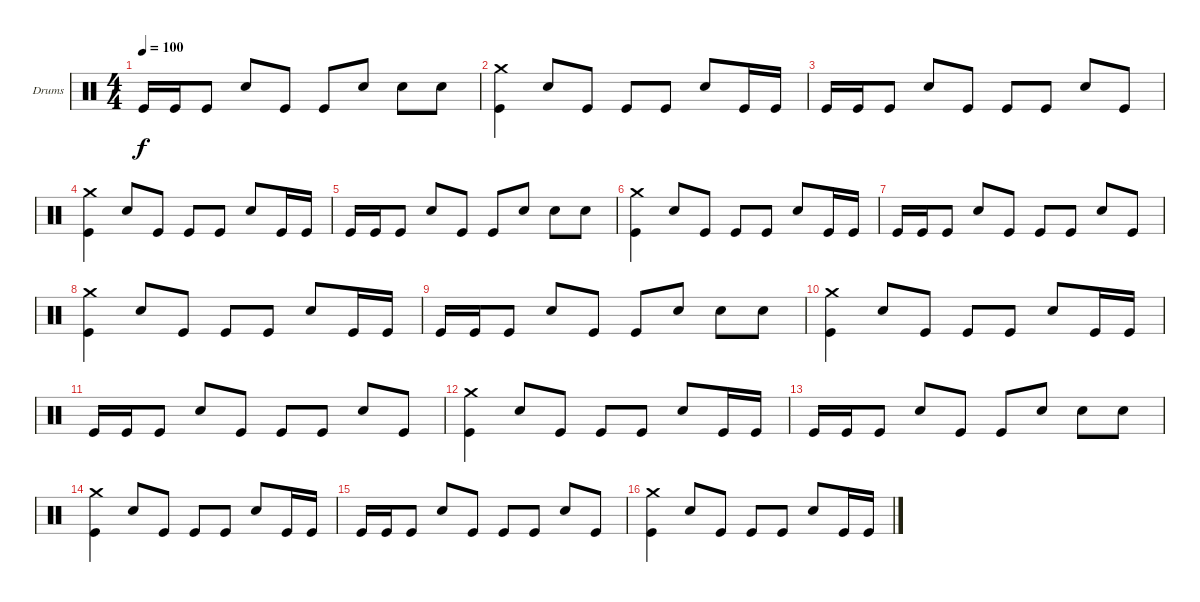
\bracketExtendMode groupsimilarinstruments
\firstSystemTrackNameOrientation horizontal
\otherSystemsTrackNameOrientation horizontal
\track ("Drumkit" "Drums") {instrument percussion}
\staff {score}
\articulation defaults
\ts (4 4)
\tempo 100
\clef neutral
\ks c "Kick (hit)".16{dy f} "Kick (hit)".16 "Kick (hit)".8 "Snare (hit) 2".8 "Kick (hit)".8 "Kick (hit)".8 "Snare (hit) 2".8 "Snare (hit) 2".8 "Snare (hit) 2".8
|
("Crash medium (hit)" "Kick (hit)").4 "Snare (hit) 2".8 "Kick (hit)".8 "Kick (hit)".8 "Kick (hit)".8 "Snare (hit) 2".8 "Kick (hit)".16 "Kick (hit)".16 |
"Kick (hit)".16 "Kick (hit)".16 "Kick (hit)".8 "Snare (hit) 2".8 "Kick (hit)".8 "Kick (hit)".8 "Kick (hit)".8 "Snare (hit) 2".8 "Kick (hit)".8 |
("Crash medium (hit)" "Kick (hit)").4 "Snare (hit) 2".8 "Kick (hit)".8 "Kick (hit)".8 "Kick (hit)".8 "Snare (hit) 2".8 "Kick (hit)".16 "Kick (hit)".16 |
"Kick (hit)".16 "Kick (hit)".16 "Kick (hit)".8 "Snare (hit) 2".8 "Kick (hit)".8 "Kick (hit)".8 "Snare (hit) 2".8 "Snare (hit) 2".8 "Snare (hit) 2".8 |
("Crash medium (hit)" "Kick (hit)").4 "Snare (hit) 2".8 "Kick (hit)".8 "Kick (hit)".8 "Kick (hit)".8 "Snare (hit) 2".8 "Kick (hit)".16 "Kick (hit)".16 |
"Kick (hit)".16 "Kick (hit)".16 "Kick (hit)".8 "Snare (hit) 2".8 "Kick (hit)".8 "Kick (hit)".8 "Kick (hit)".8 "Snare (hit) 2".8 "Kick (hit)".8 |
("Crash medium (hit)" "Kick (hit)").4 "Snare (hit) 2".8 "Kick (hit)".8 "Kick (hit)".8 "Kick (hit)".8 "Snare (hit) 2".8 "Kick (hit)".16 "Kick (hit)".16 |
"Kick (hit)".16 "Kick (hit)".16 "Kick (hit)".8 "Snare (hit) 2".8 "Kick (hit)".8 "Kick (hit)".8 "Snare (hit) 2".8 "Snare (hit) 2".8 "Snare (hit) 2".8 |
("Crash medium (hit)" "Kick (hit)").4 "Snare (hit) 2".8 "Kick (hit)".8 "Kick (hit)".8 "Kick (hit)".8 "Snare (hit) 2".8 "Kick (hit)".16 "Kick (hit)".16 |
"Kick (hit)".16 "Kick (hit)".16 "Kick (hit)".8 "Snare (hit) 2".8 "Kick (hit)".8 "Kick (hit)".8 "Kick (hit)".8 "Snare (hit) 2".8 "Kick (hit)".8 |
("Crash medium (hit)" "Kick (hit)").4 "Snare (hit) 2".8 "Kick (hit)".8 "Kick (hit)".8 "Kick (hit)".8 "Snare (hit) 2".8 "Kick (hit)".16 "Kick (hit)".16 |
"Kick (hit)".16 "Kick (hit)".16 "Kick (hit)".8 "Snare (hit) 2".8 "Kick (hit)".8 "Kick (hit)".8 "Snare (hit) 2".8 "Snare (hit) 2".8 "Snare (hit) 2".8 |
("Crash medium (hit)" "Kick (hit)").4 "Snare (hit) 2".8 "Kick (hit)".8 "Kick (hit)".8 "Kick (hit)".8 "Snare (hit) 2".8 "Kick (hit)".16 "Kick (hit)".16 |
"Kick (hit)".16 "Kick (hit)".16 "Kick (hit)".8 "Snare (hit) 2".8 "Kick (hit)".8 "Kick (hit)".8 "Kick (hit)".8 "Snare (hit) 2".8 "Kick (hit)".8 |
("Crash medium (hit)" "Kick (hit)").4 "Snare (hit) 2".8 "Kick (hit)".8 "Kick (hit)".8 "Kick (hit)".8 "Snare (hit) 2".8 "Kick (hit)".16 "Kick (hit)".16
